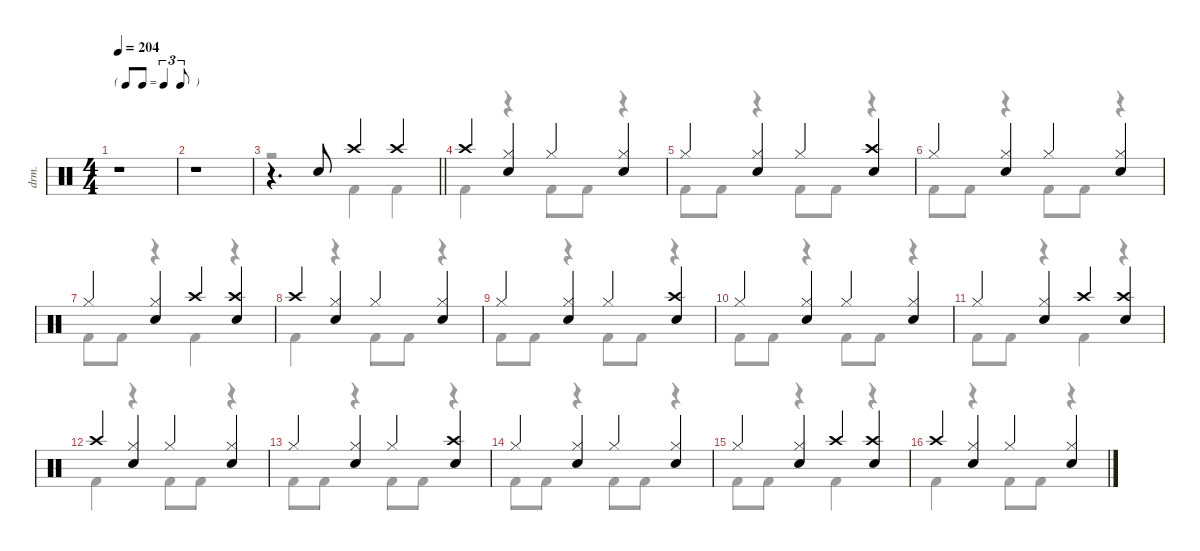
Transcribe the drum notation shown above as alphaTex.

\defaultSystemsLayout 4
\hideDynamics
\bracketExtendMode nobrackets
\otherSystemsTrackNameOrientation horizontal
\track ("Lars Ulrich" "drm.") {defaultSystemsLayout 8 instrument percussion}
\staff {score}
\articulation defaults
\voice
\ts (4 4)
\tf triplet8th
\tempo 204
\clef neutral
\ks aminor
r.1{dy f beam Down} |
r.1{beam Down} |
\barLineRight lightlight
r.4{d beam Up} "Snare (hit) 2".8{beam Up} "Crash high (hit)".4{beam Up} "Crash high (hit)".4{beam Up} |
"Crash high (hit)".4{beam Up} ("Hi-Hat (closed)" "Snare (hit) 2").4{beam Up} "Hi-Hat (closed)".4{beam Up} ("Hi-Hat (closed)" "Snare (hit) 2").4{beam Up} |
"Hi-Hat (closed)".4{beam Up} ("Hi-Hat (closed)" "Snare (hit) 2").4{beam Up} "Hi-Hat (closed)".4{beam Up} ("Crash high (hit)" "Snare (hit) 2").4{beam Up} |
"Hi-Hat (closed)".4{beam Up} ("Hi-Hat (closed)" "Snare (hit) 2").4{beam Up} "Hi-Hat (closed)".4{beam Up} ("Hi-Hat (closed)" "Snare (hit) 2").4{beam Up} |
"Hi-Hat (closed)".4{beam Up} ("Hi-Hat (closed)" "Snare (hit) 2").4{beam Up} "Crash high (hit)".4{beam Up} ("Crash high (hit)" "Snare (hit) 2").4{beam Up} |
"Crash high (hit)".4{beam Up} ("Hi-Hat (closed)" "Snare (hit) 2").4{beam Up} "Hi-Hat (closed)".4{beam Up} ("Hi-Hat (closed)" "Snare (hit) 2").4{beam Up} |
"Hi-Hat (closed)".4{beam Up} ("Hi-Hat (closed)" "Snare (hit) 2").4{beam Up} "Hi-Hat (closed)".4{beam Up} ("Crash high (hit)" "Snare (hit) 2").4{beam Up} |
"Hi-Hat (closed)".4{beam Up} ("Hi-Hat (closed)" "Snare (hit) 2").4{beam Up} "Hi-Hat (closed)".4{beam Up} ("Hi-Hat (closed)" "Snare (hit) 2").4{beam Up} |
"Hi-Hat (closed)".4{beam Up} ("Hi-Hat (closed)" "Snare (hit) 2").4{beam Up} "Crash high (hit)".4{beam Up} ("Crash high (hit)" "Snare (hit) 2").4{beam Up} |
"Crash high (hit)".4{beam Up} ("Hi-Hat (closed)" "Snare (hit) 2").4{beam Up} "Hi-Hat (closed)".4{beam Up} ("Hi-Hat (closed)" "Snare (hit) 2").4{beam Up} |
"Hi-Hat (closed)".4{beam Up} ("Hi-Hat (closed)" "Snare (hit) 2").4{beam Up} "Hi-Hat (closed)".4{beam Up} ("Crash high (hit)" "Snare (hit) 2").4{beam Up} |
"Hi-Hat (closed)".4{beam Up} ("Hi-Hat (closed)" "Snare (hit) 2").4{beam Up} "Hi-Hat (closed)".4{beam Up} ("Hi-Hat (closed)" "Snare (hit) 2").4{beam Up} |
"Hi-Hat (closed)".4{beam Up} ("Hi-Hat (closed)" "Snare (hit) 2").4{beam Up} "Crash high (hit)".4{beam Up} ("Crash high (hit)" "Snare (hit) 2").4{beam Up} |
"Crash high (hit)".4{beam Up} ("Hi-Hat (closed)" "Snare (hit) 2").4{beam Up} "Hi-Hat (closed)".4{beam Up} ("Hi-Hat (closed)" "Snare (hit) 2").4{beam Up}
\voice
\clef neutral
\ottava regular
\simile none
\ks aminor
|
|
\barLineRight lightlight
r.2{beam Down} "Kick (hit) 2".4{beam Down} "Kick (hit) 2".4{beam Down} |
"Kick (hit) 2".4{beam Down} r.4{beam Down} "Kick (hit) 2".8{beam Down} "Kick (hit) 2".8{beam Down} r.4{beam Down} |
"Kick (hit) 2".8{beam Down} "Kick (hit) 2".8{beam Down} r.4{beam Down} "Kick (hit) 2".8{beam Down} "Kick (hit) 2".8{beam Down} r.4{beam Down} |
"Kick (hit) 2".8{beam Down} "Kick (hit) 2".8{beam Down} r.4{beam Down} "Kick (hit) 2".8{beam Down} "Kick (hit) 2".8{beam Down} r.4{beam Down} |
"Kick (hit) 2".8{beam Down} "Kick (hit) 2".8{beam Down} r.4{beam Down} "Kick (hit) 2".4{beam Down} r.4{beam Down} |
"Kick (hit) 2".4{beam Down} r.4{beam Down} "Kick (hit) 2".8{beam Down} "Kick (hit) 2".8{beam Down} r.4{beam Down} |
"Kick (hit) 2".8{beam Down} "Kick (hit) 2".8{beam Down} r.4{beam Down} "Kick (hit) 2".8{beam Down} "Kick (hit) 2".8{beam Down} r.4{beam Down} |
"Kick (hit) 2".8{beam Down} "Kick (hit) 2".8{beam Down} r.4{beam Down} "Kick (hit) 2".8{beam Down} "Kick (hit) 2".8{beam Down} r.4{beam Down} |
"Kick (hit) 2".8{beam Down} "Kick (hit) 2".8{beam Down} r.4{beam Down} "Kick (hit) 2".4{beam Down} r.4{beam Down} |
"Kick (hit) 2".4{beam Down} r.4{beam Down} "Kick (hit) 2".8{beam Down} "Kick (hit) 2".8{beam Down} r.4{beam Down} |
"Kick (hit) 2".8{beam Down} "Kick (hit) 2".8{beam Down} r.4{beam Down} "Kick (hit) 2".8{beam Down} "Kick (hit) 2".8{beam Down} r.4{beam Down} |
"Kick (hit) 2".8{beam Down} "Kick (hit) 2".8{beam Down} r.4{beam Down} "Kick (hit) 2".8{beam Down} "Kick (hit) 2".8{beam Down} r.4{beam Down} |
"Kick (hit) 2".8{beam Down} "Kick (hit) 2".8{beam Down} r.4{beam Down} "Kick (hit) 2".4{beam Down} r.4{beam Down} |
"Kick (hit) 2".4{beam Down} r.4{beam Down} "Kick (hit) 2".8{beam Down} "Kick (hit) 2".8{beam Down} r.4{beam Down}
